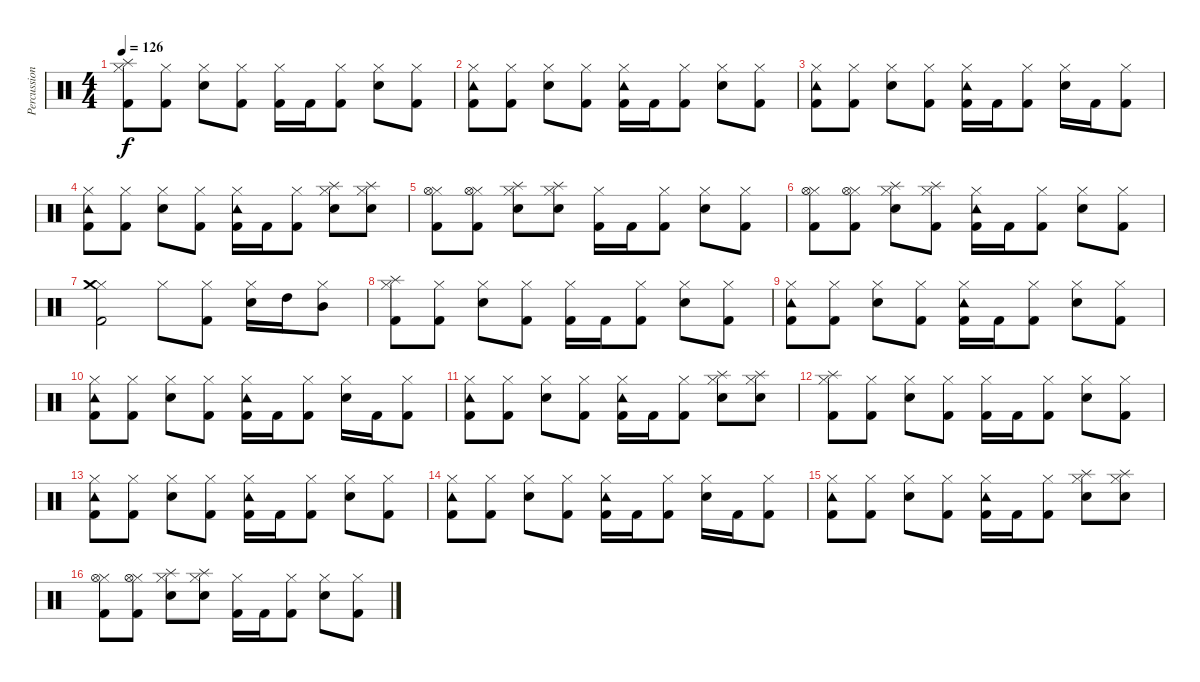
\track ("Percussion" "Percussion") {instrument percussion}
\staff {score}
\articulation defaults
\ts (4 4)
\tempo 126
\clef neutral
\ks c
("Hi-Hat (closed)" "Kick (hit) 2" "Splash (hit)").8{dy f} ("Hi-Hat (closed)" "Kick (hit) 2").8 ("Hi-Hat (closed)" "Electric Snare (hit)").8 ("Hi-Hat (closed)" "Kick (hit) 2").8 ("Hi-Hat (closed)" "Kick (hit) 2").16 "Kick (hit) 2".16 ("Hi-Hat (closed)" "Kick (hit) 2").8 ("Hi-Hat (closed)" "Electric Snare (hit)").8 ("Hi-Hat (closed)" "Kick (hit) 2").8 |
("Hi-Hat (closed)" "Kick (hit) 2" "Tambourine (hit)").8 ("Hi-Hat (closed)" "Kick (hit) 2").8 ("Hi-Hat (closed)" "Electric Snare (hit)").8 ("Hi-Hat (closed)" "Kick (hit) 2").8 ("Hi-Hat (closed)" "Kick (hit) 2" "Tambourine (hit)").16 "Kick (hit) 2".16 ("Hi-Hat (closed)" "Kick (hit) 2").8 ("Hi-Hat (closed)" "Electric Snare (hit)").8 ("Hi-Hat (closed)" "Kick (hit) 2").8 |
("Hi-Hat (closed)" "Kick (hit) 2" "Tambourine (hit)").8 ("Hi-Hat (closed)" "Kick (hit) 2").8 ("Hi-Hat (closed)" "Electric Snare (hit)").8 ("Hi-Hat (closed)" "Kick (hit) 2").8 ("Hi-Hat (closed)" "Kick (hit) 2" "Tambourine (hit)").16 "Kick (hit) 2".16 ("Hi-Hat (closed)" "Kick (hit) 2").8 ("Hi-Hat (closed)" "Electric Snare (hit)").16 "Kick (hit) 2".16 ("Hi-Hat (closed)" "Kick (hit) 2").8 |
("Hi-Hat (closed)" "Kick (hit) 2" "Tambourine (hit)").8 ("Hi-Hat (closed)" "Kick (hit) 2").8 ("Hi-Hat (closed)" "Electric Snare (hit)").8 ("Hi-Hat (closed)" "Kick (hit) 2").8 ("Hi-Hat (closed)" "Kick (hit) 2" "Tambourine (hit)").16 "Kick (hit) 2".16 ("Hi-Hat (closed)" "Kick (hit) 2").8 ("Hi-Hat (closed)" "Electric Snare (hit)" "Splash (hit)").8 ("Hi-Hat (closed)" "Electric Snare (hit)" "Splash (hit)").8 |
("Hi-Hat (closed)" "Kick (hit) 2" "Hi-Hat (open)").8 ("Hi-Hat (closed)" "Kick (hit) 2" "Hi-Hat (open)").8 ("Hi-Hat (closed)" "Electric Snare (hit)" "Splash (hit)").8 ("Hi-Hat (closed)" "Electric Snare (hit)" "Splash (hit)").8 ("Hi-Hat (closed)" "Kick (hit) 2").16 "Kick (hit) 2".16 ("Hi-Hat (closed)" "Kick (hit) 2").8 ("Hi-Hat (closed)" "Electric Snare (hit)").8 ("Hi-Hat (closed)" "Kick (hit) 2").8 |
("Hi-Hat (closed)" "Kick (hit) 2" "Hi-Hat (open)").8 ("Hi-Hat (closed)" "Kick (hit) 2" "Hi-Hat (open)").8 ("Hi-Hat (closed)" "Electric Snare (hit)" "Splash (hit)").8 ("Hi-Hat (closed)" "Kick (hit) 2" "Splash (hit)").8 ("Hi-Hat (closed)" "Kick (hit) 2" "Tambourine (hit)").16 "Kick (hit) 2".16 ("Hi-Hat (closed)" "Kick (hit) 2").8 ("Hi-Hat (closed)" "Electric Snare (hit)").8 ("Hi-Hat (closed)" "Kick (hit) 2").8 |
("Hi-Hat (closed)" "Kick (hit) 2" "Crash medium (hit)").2 "Hi-Hat (closed)".8 ("Hi-Hat (closed)" "Kick (hit) 2").8 ("Hi-Hat (closed)" "Electric Snare (hit)").16 "High Tom (hit)".16 ("Hi-Hat (closed)" "Mid Tom (hit)").8 |
("Hi-Hat (closed)" "Kick (hit) 2" "Splash (hit)").8 ("Hi-Hat (closed)" "Kick (hit) 2").8 ("Hi-Hat (closed)" "Electric Snare (hit)").8 ("Hi-Hat (closed)" "Kick (hit) 2").8 ("Hi-Hat (closed)" "Kick (hit) 2").16 "Kick (hit) 2".16 ("Hi-Hat (closed)" "Kick (hit) 2").8 ("Hi-Hat (closed)" "Electric Snare (hit)").8 ("Hi-Hat (closed)" "Kick (hit) 2").8 |
("Hi-Hat (closed)" "Kick (hit) 2" "Tambourine (hit)").8 ("Hi-Hat (closed)" "Kick (hit) 2").8 ("Hi-Hat (closed)" "Electric Snare (hit)").8 ("Hi-Hat (closed)" "Kick (hit) 2").8 ("Hi-Hat (closed)" "Kick (hit) 2" "Tambourine (hit)").16 "Kick (hit) 2".16 ("Hi-Hat (closed)" "Kick (hit) 2").8 ("Hi-Hat (closed)" "Electric Snare (hit)").8 ("Hi-Hat (closed)" "Kick (hit) 2").8 |
("Hi-Hat (closed)" "Kick (hit) 2" "Tambourine (hit)").8 ("Hi-Hat (closed)" "Kick (hit) 2").8 ("Hi-Hat (closed)" "Electric Snare (hit)").8 ("Hi-Hat (closed)" "Kick (hit) 2").8 ("Hi-Hat (closed)" "Kick (hit) 2" "Tambourine (hit)").16 "Kick (hit) 2".16 ("Hi-Hat (closed)" "Kick (hit) 2").8 ("Hi-Hat (closed)" "Electric Snare (hit)").16 "Kick (hit) 2".16 ("Hi-Hat (closed)" "Kick (hit) 2").8 |
("Hi-Hat (closed)" "Kick (hit) 2" "Tambourine (hit)").8 ("Hi-Hat (closed)" "Kick (hit) 2").8 ("Hi-Hat (closed)" "Electric Snare (hit)").8 ("Hi-Hat (closed)" "Kick (hit) 2").8 ("Hi-Hat (closed)" "Kick (hit) 2" "Tambourine (hit)").16 "Kick (hit) 2".16 ("Hi-Hat (closed)" "Kick (hit) 2").8 ("Hi-Hat (closed)" "Electric Snare (hit)" "Splash (hit)").8 ("Hi-Hat (closed)" "Electric Snare (hit)" "Splash (hit)").8 |
("Hi-Hat (closed)" "Kick (hit) 2" "Splash (hit)").8 ("Hi-Hat (closed)" "Kick (hit) 2").8 ("Hi-Hat (closed)" "Electric Snare (hit)").8 ("Hi-Hat (closed)" "Kick (hit) 2").8 ("Hi-Hat (closed)" "Kick (hit) 2").16 "Kick (hit) 2".16 ("Hi-Hat (closed)" "Kick (hit) 2").8 ("Hi-Hat (closed)" "Electric Snare (hit)").8 ("Hi-Hat (closed)" "Kick (hit) 2").8 |
("Hi-Hat (closed)" "Kick (hit) 2" "Tambourine (hit)").8 ("Hi-Hat (closed)" "Kick (hit) 2").8 ("Hi-Hat (closed)" "Electric Snare (hit)").8 ("Hi-Hat (closed)" "Kick (hit) 2").8 ("Hi-Hat (closed)" "Kick (hit) 2" "Tambourine (hit)").16 "Kick (hit) 2".16 ("Hi-Hat (closed)" "Kick (hit) 2").8 ("Hi-Hat (closed)" "Electric Snare (hit)").8 ("Hi-Hat (closed)" "Kick (hit) 2").8 |
("Hi-Hat (closed)" "Kick (hit) 2" "Tambourine (hit)").8 ("Hi-Hat (closed)" "Kick (hit) 2").8 ("Hi-Hat (closed)" "Electric Snare (hit)").8 ("Hi-Hat (closed)" "Kick (hit) 2").8 ("Hi-Hat (closed)" "Kick (hit) 2" "Tambourine (hit)").16 "Kick (hit) 2".16 ("Hi-Hat (closed)" "Kick (hit) 2").8 ("Hi-Hat (closed)" "Electric Snare (hit)").16 "Kick (hit) 2".16 ("Hi-Hat (closed)" "Kick (hit) 2").8 |
("Hi-Hat (closed)" "Kick (hit) 2" "Tambourine (hit)").8 ("Hi-Hat (closed)" "Kick (hit) 2").8 ("Hi-Hat (closed)" "Electric Snare (hit)").8 ("Hi-Hat (closed)" "Kick (hit) 2").8 ("Hi-Hat (closed)" "Kick (hit) 2" "Tambourine (hit)").16 "Kick (hit) 2".16 ("Hi-Hat (closed)" "Kick (hit) 2").8 ("Hi-Hat (closed)" "Electric Snare (hit)" "Splash (hit)").8 ("Hi-Hat (closed)" "Electric Snare (hit)" "Splash (hit)").8 |
("Hi-Hat (closed)" "Kick (hit) 2" "Hi-Hat (open)").8 ("Hi-Hat (closed)" "Kick (hit) 2" "Hi-Hat (open)").8 ("Hi-Hat (closed)" "Electric Snare (hit)" "Splash (hit)").8 ("Hi-Hat (closed)" "Electric Snare (hit)" "Splash (hit)").8 ("Hi-Hat (closed)" "Kick (hit) 2").16 "Kick (hit) 2".16 ("Hi-Hat (closed)" "Kick (hit) 2").8 ("Hi-Hat (closed)" "Electric Snare (hit)").8 ("Hi-Hat (closed)" "Kick (hit) 2").8
